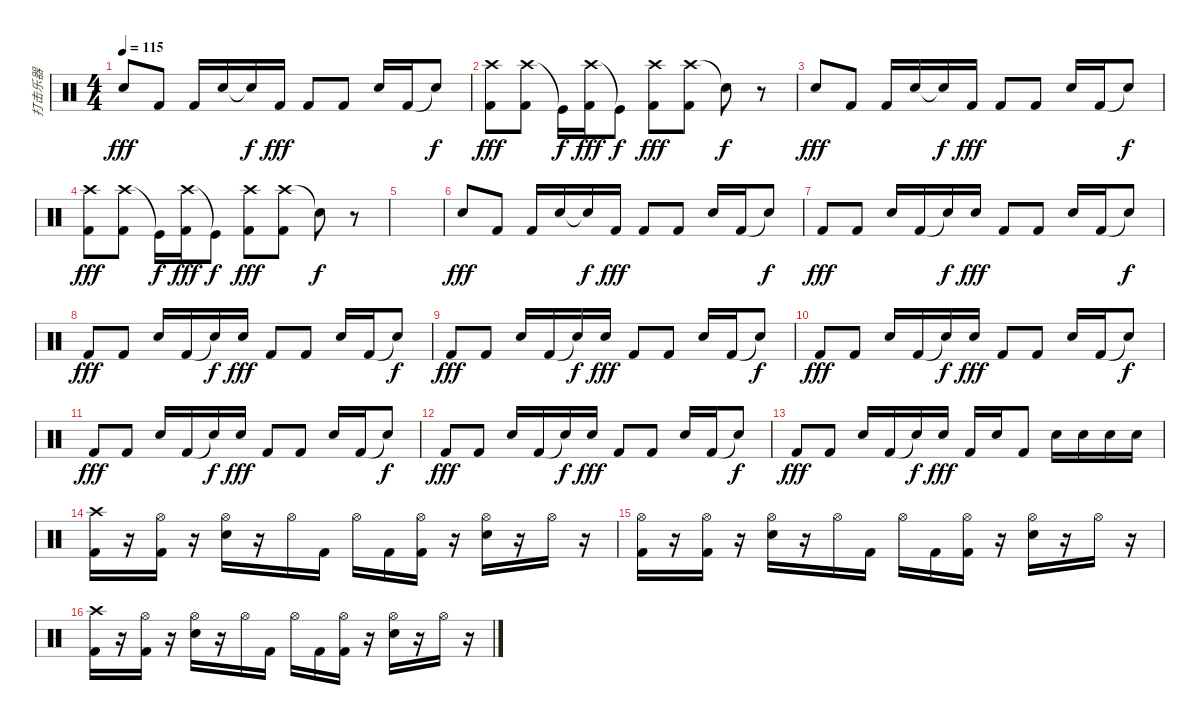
\track ("打击乐器" "打击乐器") {instrument percussion}
\staff {score}
\articulation defaults
\ts (4 4)
\tempo 115
\clef neutral
\ks c "Electric Snare (hit)".8{dy fff} "Kick (hit) 2".8 "Kick (hit) 2".16 "Electric Snare (hit)".16 "Snare (hit) 2"{t}.16{dy f} "Kick (hit) 2".16{dy fff} "Kick (hit) 2".8 "Kick (hit) 2".8 "Electric Snare (hit)".16 "Kick (hit) 2".16 "Snare (hit)"{t}.8{dy f}
|
("Crash high (hit)" "Kick (hit) 2").8{dy fff} ("Crash high (hit)" "Kick (hit) 2").8 "Kick (hit)"{t}.16{dy f} ("Crash high (hit)" "Kick (hit) 2").16{dy fff} "Kick (hit)"{t}.8{dy f} ("Crash high (hit)" "Kick (hit) 2").8{dy fff} ("Crash high (hit)" "Kick (hit) 2").8 "Snare (hit)"{t}.8{dy f} r.8 |
"Electric Snare (hit)".8{dy fff} "Kick (hit) 2".8 "Kick (hit) 2".16 "Electric Snare (hit)".16 "Snare (hit) 2"{t}.16{dy f} "Kick (hit) 2".16{dy fff} "Kick (hit) 2".8 "Kick (hit) 2".8 "Electric Snare (hit)".16 "Kick (hit) 2".16 "Snare (hit)"{t}.8{dy f} |
("Crash high (hit)" "Kick (hit) 2").8{dy fff} ("Crash high (hit)" "Kick (hit) 2").8 "Kick (hit)"{t}.16{dy f} ("Crash high (hit)" "Kick (hit) 2").16{dy fff} "Kick (hit)"{t}.8{dy f} ("Crash high (hit)" "Kick (hit) 2").8{dy fff} ("Crash high (hit)" "Kick (hit) 2").8 "Snare (hit)"{t}.8{dy f} r.8 |
|
"Electric Snare (hit)".8{dy fff} "Kick (hit) 2".8 "Kick (hit) 2".16 "Electric Snare (hit)".16 "Snare (hit) 2"{t}.16{dy f} "Kick (hit) 2".16{dy fff} "Kick (hit) 2".8 "Kick (hit) 2".8 "Electric Snare (hit)".16 "Kick (hit) 2".16 "Snare (hit)"{t}.8{dy f} |
"Kick (hit) 2".8{dy fff} "Kick (hit) 2".8 "Electric Snare (hit)".16 "Kick (hit) 2".16 "Snare (hit) 2"{t}.16{dy f} "Electric Snare (hit)".16{dy fff} "Kick (hit) 2".8 "Kick (hit) 2".8 "Electric Snare (hit)".16 "Kick (hit) 2".16 "Snare (hit)"{t}.8{dy f} |
"Kick (hit) 2".8{dy fff} "Kick (hit) 2".8 "Electric Snare (hit)".16 "Kick (hit) 2".16 "Snare (hit) 2"{t}.16{dy f} "Electric Snare (hit)".16{dy fff} "Kick (hit) 2".8 "Kick (hit) 2".8 "Electric Snare (hit)".16 "Kick (hit) 2".16 "Snare (hit)"{t}.8{dy f} |
"Kick (hit) 2".8{dy fff} "Kick (hit) 2".8 "Electric Snare (hit)".16 "Kick (hit) 2".16 "Snare (hit) 2"{t}.16{dy f} "Electric Snare (hit)".16{dy fff} "Kick (hit) 2".8 "Kick (hit) 2".8 "Electric Snare (hit)".16 "Kick (hit) 2".16 "Snare (hit)"{t}.8{dy f} |
"Kick (hit) 2".8{dy fff} "Kick (hit) 2".8 "Electric Snare (hit)".16 "Kick (hit) 2".16 "Snare (hit) 2"{t}.16{dy f} "Electric Snare (hit)".16{dy fff} "Kick (hit) 2".8 "Kick (hit) 2".8 "Electric Snare (hit)".16 "Kick (hit) 2".16 "Snare (hit)"{t}.8{dy f} |
"Kick (hit) 2".8{dy fff} "Kick (hit) 2".8 "Electric Snare (hit)".16 "Kick (hit) 2".16 "Snare (hit) 2"{t}.16{dy f} "Electric Snare (hit)".16{dy fff} "Kick (hit) 2".8 "Kick (hit) 2".8 "Electric Snare (hit)".16 "Kick (hit) 2".16 "Snare (hit)"{t}.8{dy f} |
"Kick (hit) 2".8{dy fff} "Kick (hit) 2".8 "Electric Snare (hit)".16 "Kick (hit) 2".16 "Snare (hit) 2"{t}.16{dy f} "Electric Snare (hit)".16{dy fff} "Kick (hit) 2".8 "Kick (hit) 2".8 "Electric Snare (hit)".16 "Kick (hit) 2".16 "Snare (hit)"{t}.8{dy f} |
"Kick (hit) 2".8{dy fff} "Kick (hit) 2".8 "Electric Snare (hit)".16 "Kick (hit) 2".16 "Snare (hit) 2"{t}.16{dy f} "Electric Snare (hit)".16{dy fff} "Kick (hit) 2".16 "Electric Snare (hit)".16 "Kick (hit) 2".8 "Electric Snare (hit)".16 "Electric Snare (hit)".16 "Electric Snare (hit)".16 "Electric Snare (hit)".16 |
("Crash high (hit)" "Kick (hit) 2").16 r.16 ("Hi-Hat (open)" "Kick (hit) 2").16 r.16 ("Hi-Hat (open)" "Electric Snare (hit)").16 r.16 "Hi-Hat (open)".16 "Kick (hit) 2".16 "Hi-Hat (open)".16 "Kick (hit) 2".16 ("Hi-Hat (open)" "Kick (hit) 2").16 r.16 ("Hi-Hat (open)" "Electric Snare (hit)").16 r.16 "Hi-Hat (open)".16 r.16 |
("Hi-Hat (open)" "Kick (hit) 2").16 r.16 ("Hi-Hat (open)" "Kick (hit) 2").16 r.16 ("Hi-Hat (open)" "Electric Snare (hit)").16 r.16 "Hi-Hat (open)".16 "Kick (hit) 2".16 "Hi-Hat (open)".16 "Kick (hit) 2".16 ("Hi-Hat (open)" "Kick (hit) 2").16 r.16 ("Hi-Hat (open)" "Electric Snare (hit)").16 r.16 "Hi-Hat (open)".16 r.16 |
("Crash high (hit)" "Kick (hit) 2").16 r.16 ("Hi-Hat (open)" "Kick (hit) 2").16 r.16 ("Hi-Hat (open)" "Electric Snare (hit)").16 r.16 "Hi-Hat (open)".16 "Kick (hit) 2".16 "Hi-Hat (open)".16 "Kick (hit) 2".16 ("Hi-Hat (open)" "Kick (hit) 2").16 r.16 ("Hi-Hat (open)" "Electric Snare (hit)").16 r.16 "Hi-Hat (open)".16 r.16
